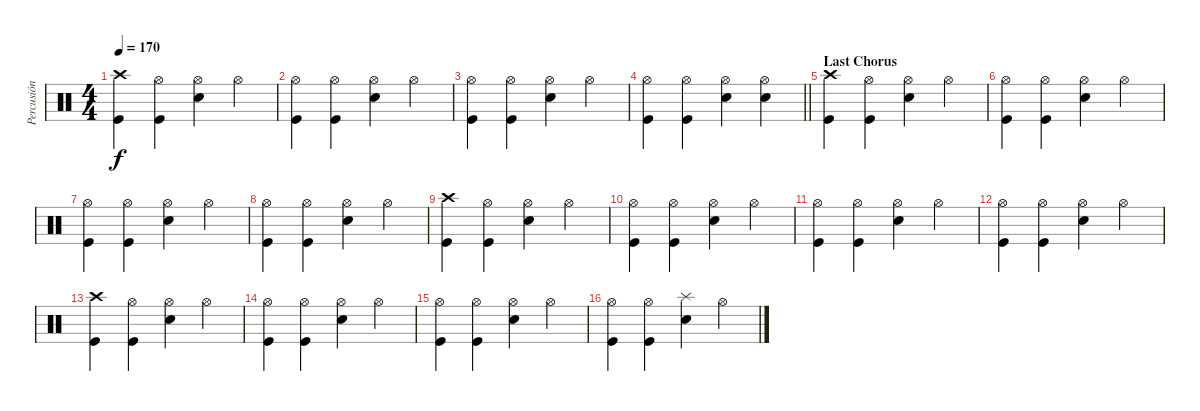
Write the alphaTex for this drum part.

\track ("Percusión" "Percusión") {instrument percussion}
\staff {score}
\articulation defaults
\ts (4 4)
\tempo 170
\clef neutral
\ks c
("Crash high (hit)" "Kick (hit)").4{dy f} ("Hi-Hat (open)" "Kick (hit)").4 ("Hi-Hat (open)" "Electric Snare (hit)").4 "Hi-Hat (open)".4 |
("Hi-Hat (open)" "Kick (hit)").4 ("Hi-Hat (open)" "Kick (hit)").4 ("Hi-Hat (open)" "Electric Snare (hit)").4 "Hi-Hat (open)".4 |
("Hi-Hat (open)" "Kick (hit)").4 ("Hi-Hat (open)" "Kick (hit)").4 ("Hi-Hat (open)" "Electric Snare (hit)").4 "Hi-Hat (open)".4 |
\barLineRight lightlight
("Hi-Hat (open)" "Kick (hit)").4 ("Hi-Hat (open)" "Kick (hit)").4 ("Hi-Hat (open)" "Electric Snare (hit)").4 ("Hi-Hat (open)" "Electric Snare (hit)").4 |
\section ("" "Last Chorus")
("Crash high (hit)" "Kick (hit)").4 ("Hi-Hat (open)" "Kick (hit)").4 ("Hi-Hat (open)" "Electric Snare (hit)").4 "Hi-Hat (open)".4 |
("Hi-Hat (open)" "Kick (hit)").4 ("Hi-Hat (open)" "Kick (hit)").4 ("Hi-Hat (open)" "Electric Snare (hit)").4 "Hi-Hat (open)".4 |
("Hi-Hat (open)" "Kick (hit)").4 ("Hi-Hat (open)" "Kick (hit)").4 ("Hi-Hat (open)" "Electric Snare (hit)").4 "Hi-Hat (open)".4 |
("Hi-Hat (open)" "Kick (hit)").4 ("Hi-Hat (open)" "Kick (hit)").4 ("Hi-Hat (open)" "Electric Snare (hit)").4 "Hi-Hat (open)".4 |
("Crash high (hit)" "Kick (hit)").4 ("Hi-Hat (open)" "Kick (hit)").4 ("Hi-Hat (open)" "Electric Snare (hit)").4 "Hi-Hat (open)".4 |
("Hi-Hat (open)" "Kick (hit)").4 ("Hi-Hat (open)" "Kick (hit)").4 ("Hi-Hat (open)" "Electric Snare (hit)").4 "Hi-Hat (open)".4 |
("Hi-Hat (open)" "Kick (hit)").4 ("Hi-Hat (open)" "Kick (hit)").4 ("Hi-Hat (open)" "Electric Snare (hit)").4 "Hi-Hat (open)".4 |
("Hi-Hat (open)" "Kick (hit)").4 ("Hi-Hat (open)" "Kick (hit)").4 ("Hi-Hat (open)" "Electric Snare (hit)").4 "Hi-Hat (open)".4 |
("Crash high (hit)" "Kick (hit)").4 ("Hi-Hat (open)" "Kick (hit)").4 ("Hi-Hat (open)" "Electric Snare (hit)").4 "Hi-Hat (open)".4 |
("Hi-Hat (open)" "Kick (hit)").4 ("Hi-Hat (open)" "Kick (hit)").4 ("Hi-Hat (open)" "Electric Snare (hit)").4 "Hi-Hat (open)".4 |
("Hi-Hat (open)" "Kick (hit)").4 ("Hi-Hat (open)" "Kick (hit)").4 ("Hi-Hat (open)" "Electric Snare (hit)").4 "Hi-Hat (open)".4 |
("Hi-Hat (open)" "Kick (hit)").4 ("Hi-Hat (open)" "Kick (hit)").4 ("Splash (hit)" "Electric Snare (hit)").4 "Hi-Hat (open)".4
